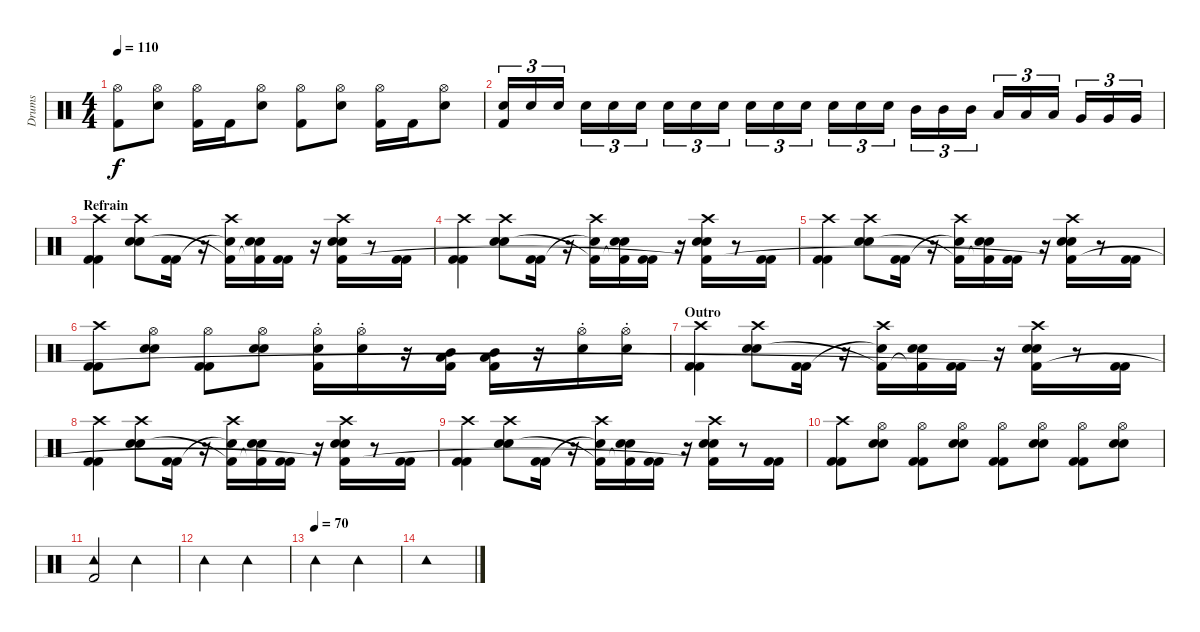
\track ("Drums" "Drums") {instrument percussion}
\staff {score}
\articulation defaults
\ts (4 4)
\tempo 110
\clef neutral
\ks c
("Hi-Hat (open)" "Kick (hit) 2").8{dy f} ("Hi-Hat (open)" "Snare (hit) 2").8 ("Hi-Hat (open)" "Kick (hit) 2").16 "Kick (hit) 2".16 ("Hi-Hat (open)" "Snare (hit) 2").8 ("Hi-Hat (open)" "Kick (hit) 2").8 ("Hi-Hat (open)" "Snare (hit) 2").8 ("Hi-Hat (open)" "Kick (hit) 2").16 "Kick (hit) 2".16 ("Hi-Hat (open)" "Snare (hit) 2").8 |
("Snare (hit) 2" "Kick (hit) 2").16{tu (3 2)} "Snare (hit) 2".16{tu (3 2)} "Snare (hit) 2".16{tu (3 2)} "Snare (hit) 2".16{tu (3 2)} "Snare (hit) 2".16{tu (3 2)} "Snare (hit) 2".16{tu (3 2)} "Snare (hit) 2".16{tu (3 2)} "Snare (hit) 2".16{tu (3 2)} "Snare (hit) 2".16{tu (3 2)} "Snare (hit) 2".16{tu (3 2)} "Snare (hit) 2".16{tu (3 2)} "Snare (hit) 2".16{tu (3 2)} "Snare (hit) 2".16{tu (3 2)} "Snare (hit) 2".16{tu (3 2)} "Snare (hit) 2".16{tu (3 2)} "Mid Tom (hit)".16{tu (3 2)} "Mid Tom (hit)".16{tu (3 2)} "Mid Tom (hit)".16{tu (3 2)} "Low Tom (hit)".16{tu (3 2)} "Low Tom (hit)".16{tu (3 2)} "Low Tom (hit)".16{tu (3 2)} "Very Low Tom (hit)".16{tu (3 2)} "Very Low Tom (hit)".16{tu (3 2)} "Very Low Tom (hit)".16{tu (3 2)} |
\section ("" "Refrain")
("Crash high (hit)" "Kick (hit) 2" "Kick (hit) 2").4 ("Crash high (hit)" "Snare (hit) 2" "Snare (hit) 2").8 ("Kick (hit) 2" "Kick (hit) 2").16 r.16 ("Crash high (hit)" "Snare (hit) 2"{t} "Kick (hit) 2"{t}).16 ("Snare (hit) 2" "Snare (hit) 2" "Kick (hit) 2"{t}).16 ("Kick (hit) 2" "Kick (hit) 2").16 r.16 ("Crash high (hit)" "Snare (hit) 2" "Snare (hit) 2" "Kick (hit) 2").16 r.8 ("Kick (hit) 2" "Kick (hit) 2").16 |
("Crash high (hit)" "Kick (hit) 2" "Kick (hit) 2").4 ("Crash high (hit)" "Snare (hit) 2" "Snare (hit) 2").8 ("Kick (hit) 2" "Kick (hit) 2").16 r.16 ("Crash high (hit)" "Snare (hit) 2"{t} "Kick (hit) 2"{t}).16 ("Snare (hit) 2" "Snare (hit) 2" "Kick (hit) 2"{t}).16 ("Kick (hit) 2" "Kick (hit) 2").16 r.16 ("Crash high (hit)" "Snare (hit) 2" "Snare (hit) 2" "Kick (hit) 2"{t}).16 r.8 ("Kick (hit) 2" "Kick (hit) 2").16 |
("Crash high (hit)" "Kick (hit) 2" "Kick (hit) 2").4 ("Crash high (hit)" "Snare (hit) 2" "Snare (hit) 2").8 ("Kick (hit) 2" "Kick (hit) 2").16 r.16 ("Crash high (hit)" "Snare (hit) 2"{t} "Kick (hit) 2"{t}).16 ("Snare (hit) 2" "Snare (hit) 2" "Kick (hit) 2"{t}).16 ("Kick (hit) 2" "Kick (hit) 2").16 r.16 ("Crash high (hit)" "Snare (hit) 2" "Snare (hit) 2" "Kick (hit) 2"{t}).16 r.8 ("Kick (hit) 2" "Kick (hit) 2").16 |
("Crash high (hit)" "Kick (hit) 2" "Kick (hit) 2").8 ("Hi-Hat (open)" "Snare (hit) 2" "Snare (hit) 2").8 ("Hi-Hat (open)" "Kick (hit) 2" "Kick (hit) 2").8 ("Hi-Hat (open)" "Snare (hit) 2" "Snare (hit) 2").8 ("Hi-Hat (open)"{st} "Snare (hit) 2" "Kick (hit) 2").16 ("Hi-Hat (open)"{st} "Snare (hit) 2").16 r.16 ("Mid Tom (hit)" "Low Tom (hit)" "Kick (hit) 2").16 ("Mid Tom (hit)" "Low Tom (hit)" "Kick (hit) 2").16 r.16 ("Hi-Hat (open)"{st} "Snare (hit) 2").16 ("Hi-Hat (open)"{st} "Snare (hit) 2").16 |
\section ("" "Outro")
("Crash high (hit)" "Kick (hit) 2" "Kick (hit) 2").4 ("Crash high (hit)" "Snare (hit) 2" "Snare (hit) 2").8 ("Kick (hit) 2" "Kick (hit) 2").16 r.16 ("Crash high (hit)" "Snare (hit) 2"{t} "Kick (hit) 2"{t}).16 ("Snare (hit) 2" "Snare (hit) 2" "Kick (hit) 2"{t}).16 ("Kick (hit) 2" "Kick (hit) 2").16 r.16 ("Crash high (hit)" "Snare (hit) 2" "Snare (hit) 2" "Kick (hit) 2"{t}).16 r.8 ("Kick (hit) 2" "Kick (hit) 2").16 |
("Crash high (hit)" "Kick (hit) 2" "Kick (hit) 2").4 ("Crash high (hit)" "Snare (hit) 2" "Snare (hit) 2").8 ("Kick (hit) 2" "Kick (hit) 2").16 r.16 ("Crash high (hit)" "Snare (hit) 2"{t} "Kick (hit) 2"{t}).16 ("Snare (hit) 2" "Snare (hit) 2" "Kick (hit) 2"{t}).16 ("Kick (hit) 2" "Kick (hit) 2").16 r.16 ("Crash high (hit)" "Snare (hit) 2" "Snare (hit) 2" "Kick (hit) 2"{t}).16 r.8 ("Kick (hit) 2" "Kick (hit) 2").16 |
("Crash high (hit)" "Kick (hit) 2" "Kick (hit) 2").4 ("Crash high (hit)" "Snare (hit) 2" "Snare (hit) 2").8 ("Kick (hit) 2" "Kick (hit) 2").16 r.16 ("Crash high (hit)" "Snare (hit) 2"{t} "Kick (hit) 2"{t}).16 ("Snare (hit) 2" "Snare (hit) 2" "Kick (hit) 2"{t}).16 ("Kick (hit) 2" "Kick (hit) 2").16 r.16 ("Crash high (hit)" "Snare (hit) 2" "Snare (hit) 2" "Kick (hit) 2"{t}).16 r.8 ("Kick (hit) 2" "Kick (hit) 2").16 |
("Crash high (hit)" "Kick (hit) 2" "Kick (hit) 2").8 ("Hi-Hat (open)" "Snare (hit) 2" "Snare (hit) 2").8 ("Hi-Hat (open)" "Kick (hit) 2" "Kick (hit) 2").8 ("Hi-Hat (open)" "Snare (hit) 2" "Snare (hit) 2").8 ("Hi-Hat (open)" "Kick (hit) 2" "Kick (hit) 2").8 ("Hi-Hat (open)" "Snare (hit) 2" "Snare (hit) 2").8 ("Hi-Hat (open)" "Kick (hit) 2" "Kick (hit) 2").8 ("Hi-Hat (open)" "Snare (hit) 2" "Snare (hit) 2").8 |
("Tambourine (hit)" "Kick (hit) 2").2 "Tambourine (hit)".2 |
"Tambourine (hit)".2 "Tambourine (hit)".2 |
\tempo (70)
"Tambourine (hit)".2 "Tambourine (hit)".2 |
"Tambourine (hit)".1
